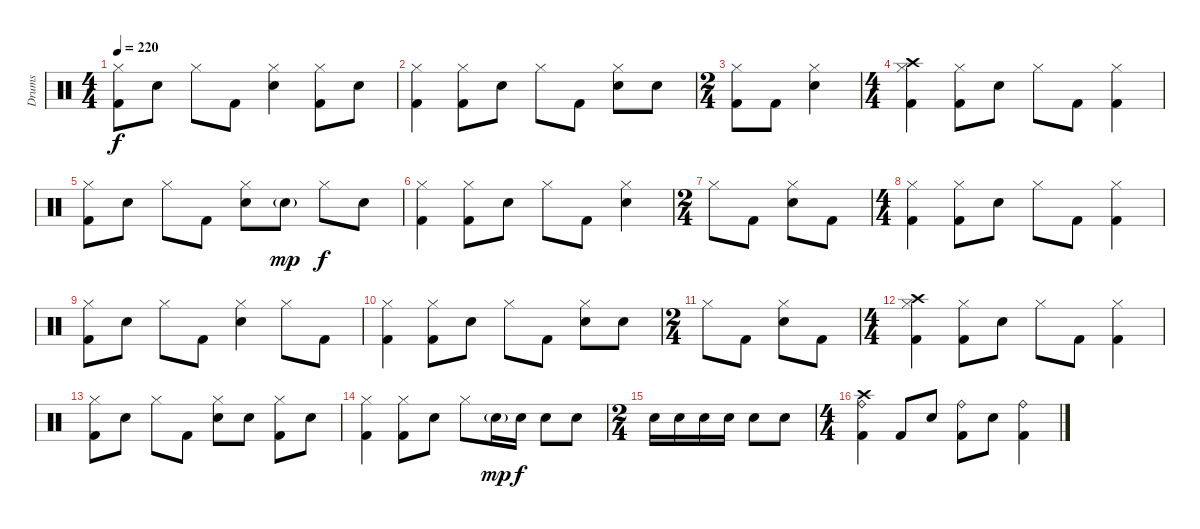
\track ("Drums" "Drums") {instrument percussion}
\staff {score}
\articulation defaults
\ts (4 4)
\tempo 220
\clef neutral
\ks c
("Hi-Hat (closed)" "Kick (hit) 2").8{dy f} "Electric Snare (hit)".8 "Hi-Hat (closed)".8 "Kick (hit) 2".8 ("Hi-Hat (closed)" "Electric Snare (hit)").4 ("Hi-Hat (closed)" "Kick (hit) 2").8 "Electric Snare (hit)".8 |
("Hi-Hat (closed)" "Kick (hit) 2").4 ("Hi-Hat (closed)" "Kick (hit) 2").8 "Electric Snare (hit)".8 "Hi-Hat (closed)".8 "Kick (hit) 2".8 ("Hi-Hat (closed)" "Electric Snare (hit)").8 "Electric Snare (hit)".8 |
\ts (2 4)
("Hi-Hat (closed)" "Kick (hit) 2").8 "Kick (hit) 2".8 ("Hi-Hat (closed)" "Electric Snare (hit)").4 |
\ts (4 4)
("Crash high (hit)" "Hi-Hat (closed)" "Kick (hit) 2").4 ("Hi-Hat (closed)" "Kick (hit) 2").8 "Electric Snare (hit)".8 "Hi-Hat (closed)".8 "Kick (hit) 2".8 ("Hi-Hat (closed)" "Kick (hit) 2").4 |
("Hi-Hat (closed)" "Kick (hit) 2").8 "Electric Snare (hit)".8 "Hi-Hat (closed)".8 "Kick (hit) 2".8 ("Hi-Hat (closed)" "Electric Snare (hit)").8 "Electric Snare (hit)"{g}.8{dy mp} "Hi-Hat (closed)".8{dy f} "Electric Snare (hit)".8 |
("Hi-Hat (closed)" "Kick (hit) 2").4 ("Hi-Hat (closed)" "Kick (hit) 2").8 "Electric Snare (hit)".8 "Hi-Hat (closed)".8 "Kick (hit) 2".8 ("Hi-Hat (closed)" "Electric Snare (hit)").4 |
\ts (2 4)
"Hi-Hat (closed)".8 "Kick (hit) 2".8 ("Hi-Hat (closed)" "Electric Snare (hit)").8 "Kick (hit) 2".8 |
\ts (4 4)
("Hi-Hat (closed)" "Kick (hit) 2").4 ("Hi-Hat (closed)" "Kick (hit) 2").8 "Electric Snare (hit)".8 "Hi-Hat (closed)".8 "Kick (hit) 2".8 ("Hi-Hat (closed)" "Kick (hit) 2").4 |
("Hi-Hat (closed)" "Kick (hit) 2").8 "Electric Snare (hit)".8 "Hi-Hat (closed)".8 "Kick (hit) 2".8 ("Hi-Hat (closed)" "Electric Snare (hit)").4 "Hi-Hat (closed)".8 "Kick (hit) 2".8 |
("Hi-Hat (closed)" "Kick (hit) 2").4 ("Hi-Hat (closed)" "Kick (hit) 2").8 "Electric Snare (hit)".8 "Hi-Hat (closed)".8 "Kick (hit) 2".8 ("Hi-Hat (closed)" "Electric Snare (hit)").8 "Electric Snare (hit)".8 |
\ts (2 4)
"Hi-Hat (closed)".8 "Kick (hit) 2".8 ("Hi-Hat (closed)" "Electric Snare (hit)").8 "Kick (hit) 2".8 |
\ts (4 4)
("Crash high (hit)" "Hi-Hat (closed)" "Kick (hit) 2").4 ("Hi-Hat (closed)" "Kick (hit) 2").8 "Electric Snare (hit)".8 "Hi-Hat (closed)".8 "Kick (hit) 2".8 ("Hi-Hat (closed)" "Kick (hit) 2").4 |
("Hi-Hat (closed)" "Kick (hit) 2").8 "Electric Snare (hit)".8 "Hi-Hat (closed)".8 "Kick (hit) 2".8 ("Hi-Hat (closed)" "Electric Snare (hit)").8 "Electric Snare (hit)".8 ("Hi-Hat (closed)" "Kick (hit) 2").8 "Electric Snare (hit)".8 |
("Hi-Hat (closed)" "Kick (hit) 2").4 ("Hi-Hat (closed)" "Kick (hit) 2").8 "Electric Snare (hit)".8 "Hi-Hat (closed)".8 "Electric Snare (hit)"{g}.16{dy mp} "Electric Snare (hit)".16{dy f} "Electric Snare (hit)".8 "Electric Snare (hit)".8 |
\ts (2 4)
"Electric Snare (hit)".16 "Electric Snare (hit)".16 "Electric Snare (hit)".16 "Electric Snare (hit)".16 "Electric Snare (hit)".8 "Electric Snare (hit)".8 |
\ts (4 4)
("Crash high (hit)" "Ride (bell)" "Kick (hit) 2").4 "Kick (hit) 2".8 "Electric Snare (hit)".8 ("Ride (bell)" "Kick (hit) 2").8 "Electric Snare (hit)".8 ("Ride (bell)" "Kick (hit) 2").4
